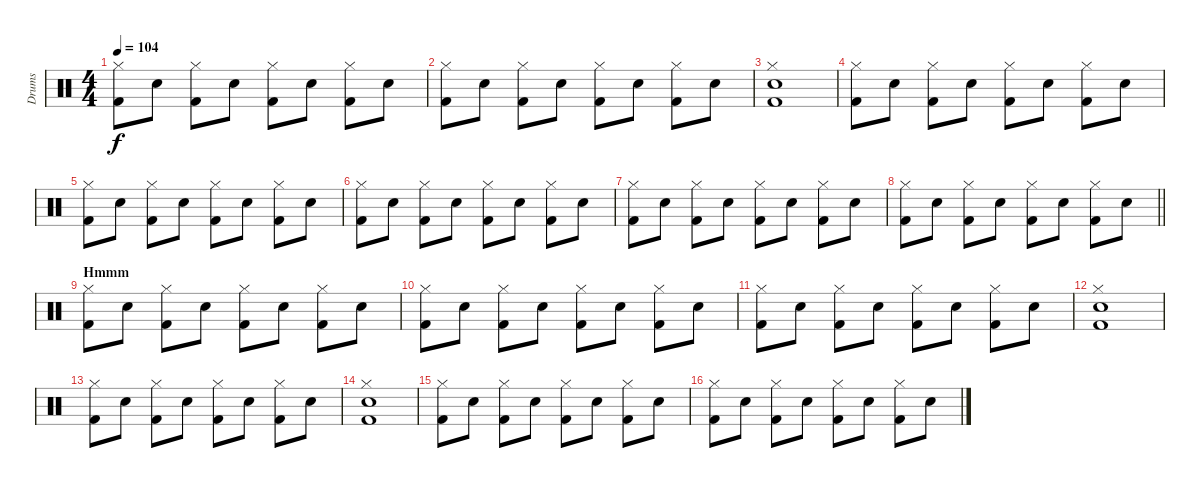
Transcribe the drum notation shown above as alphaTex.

\track ("Drums" "Drums") {instrument percussion}
\staff {score}
\articulation defaults
\ts (4 4)
\tempo 104
\clef neutral
\ks c
("Hi-Hat (closed)" "Kick (hit) 2").8{dy f} "Snare (hit) 2".8 ("Hi-Hat (closed)" "Kick (hit) 2").8 "Snare (hit) 2".8 ("Hi-Hat (closed)" "Kick (hit) 2").8 "Snare (hit) 2".8 ("Hi-Hat (closed)" "Kick (hit) 2").8 "Snare (hit) 2".8 |
("Hi-Hat (closed)" "Kick (hit) 2").8 "Snare (hit) 2".8 ("Hi-Hat (closed)" "Kick (hit) 2").8 "Snare (hit) 2".8 ("Hi-Hat (closed)" "Kick (hit) 2").8 "Snare (hit) 2".8 ("Hi-Hat (closed)" "Kick (hit) 2").8 "Snare (hit) 2".8 |
("Hi-Hat (closed)" "Snare (hit) 2" "Kick (hit) 2").1 |
("Hi-Hat (closed)" "Kick (hit) 2").8 "Snare (hit) 2".8 ("Hi-Hat (closed)" "Kick (hit) 2").8 "Snare (hit) 2".8 ("Hi-Hat (closed)" "Kick (hit) 2").8 "Snare (hit) 2".8 ("Hi-Hat (closed)" "Kick (hit) 2").8 "Snare (hit) 2".8 |
("Hi-Hat (closed)" "Kick (hit) 2").8 "Snare (hit) 2".8 ("Hi-Hat (closed)" "Kick (hit) 2").8 "Snare (hit) 2".8 ("Hi-Hat (closed)" "Kick (hit) 2").8 "Snare (hit) 2".8 ("Hi-Hat (closed)" "Kick (hit) 2").8 "Snare (hit) 2".8 |
("Hi-Hat (closed)" "Kick (hit) 2").8 "Snare (hit) 2".8 ("Hi-Hat (closed)" "Kick (hit) 2").8 "Snare (hit) 2".8 ("Hi-Hat (closed)" "Kick (hit) 2").8 "Snare (hit) 2".8 ("Hi-Hat (closed)" "Kick (hit) 2").8 "Snare (hit) 2".8 |
("Hi-Hat (closed)" "Kick (hit) 2").8 "Snare (hit) 2".8 ("Hi-Hat (closed)" "Kick (hit) 2").8 "Snare (hit) 2".8 ("Hi-Hat (closed)" "Kick (hit) 2").8 "Snare (hit) 2".8 ("Hi-Hat (closed)" "Kick (hit) 2").8 "Snare (hit) 2".8 |
\barLineRight lightlight
("Hi-Hat (closed)" "Kick (hit) 2").8 "Snare (hit) 2".8 ("Hi-Hat (closed)" "Kick (hit) 2").8 "Snare (hit) 2".8 ("Hi-Hat (closed)" "Kick (hit) 2").8 "Snare (hit) 2".8 ("Hi-Hat (closed)" "Kick (hit) 2").8 "Snare (hit) 2".8 |
\section ("" "Hmmm")
("Hi-Hat (closed)" "Kick (hit) 2").8 "Snare (hit) 2".8 ("Hi-Hat (closed)" "Kick (hit) 2").8 "Snare (hit) 2".8 ("Hi-Hat (closed)" "Kick (hit) 2").8 "Snare (hit) 2".8 ("Hi-Hat (closed)" "Kick (hit) 2").8 "Snare (hit) 2".8 |
("Hi-Hat (closed)" "Kick (hit) 2").8 "Snare (hit) 2".8 ("Hi-Hat (closed)" "Kick (hit) 2").8 "Snare (hit) 2".8 ("Hi-Hat (closed)" "Kick (hit) 2").8 "Snare (hit) 2".8 ("Hi-Hat (closed)" "Kick (hit) 2").8 "Snare (hit) 2".8 |
("Hi-Hat (closed)" "Kick (hit) 2").8 "Snare (hit) 2".8 ("Hi-Hat (closed)" "Kick (hit) 2").8 "Snare (hit) 2".8 ("Hi-Hat (closed)" "Kick (hit) 2").8 "Snare (hit) 2".8 ("Hi-Hat (closed)" "Kick (hit) 2").8 "Snare (hit) 2".8 |
("Hi-Hat (closed)" "Snare (hit) 2" "Kick (hit) 2").1 |
("Hi-Hat (closed)" "Kick (hit) 2").8 "Snare (hit) 2".8 ("Hi-Hat (closed)" "Kick (hit) 2").8 "Snare (hit) 2".8 ("Hi-Hat (closed)" "Kick (hit) 2").8 "Snare (hit) 2".8 ("Hi-Hat (closed)" "Kick (hit) 2").8 "Snare (hit) 2".8 |
("Hi-Hat (closed)" "Snare (hit) 2" "Kick (hit) 2").1 |
("Hi-Hat (closed)" "Kick (hit) 2").8 "Snare (hit) 2".8 ("Hi-Hat (closed)" "Kick (hit) 2").8 "Snare (hit) 2".8 ("Hi-Hat (closed)" "Kick (hit) 2").8 "Snare (hit) 2".8 ("Hi-Hat (closed)" "Kick (hit) 2").8 "Snare (hit) 2".8 |
("Hi-Hat (closed)" "Kick (hit) 2").8 "Snare (hit) 2".8 ("Hi-Hat (closed)" "Kick (hit) 2").8 "Snare (hit) 2".8 ("Hi-Hat (closed)" "Kick (hit) 2").8 "Snare (hit) 2".8 ("Hi-Hat (closed)" "Kick (hit) 2").8 "Snare (hit) 2".8
